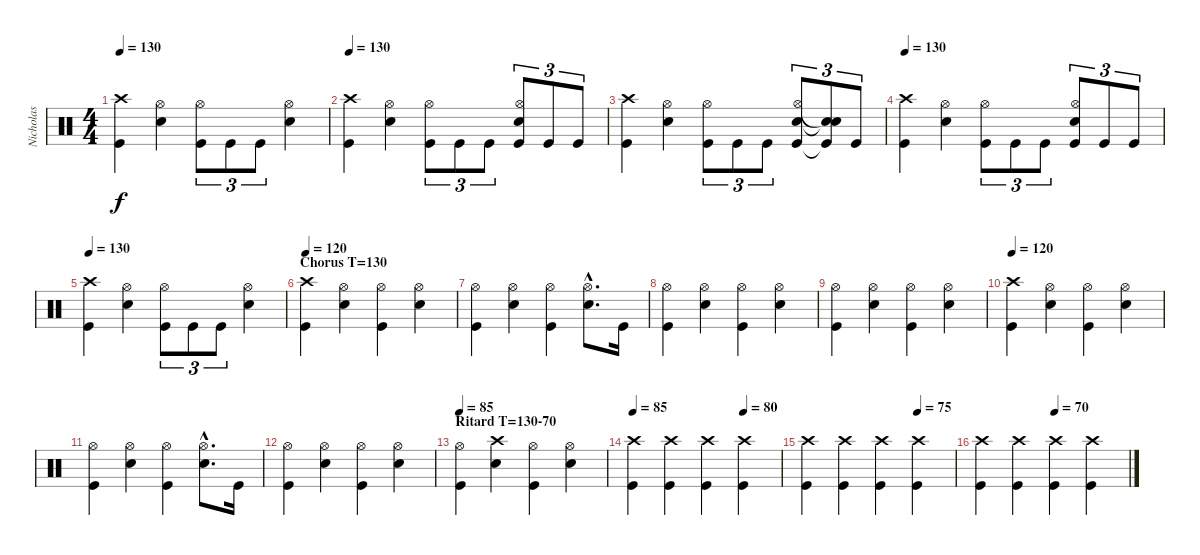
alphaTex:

\track ("Nicholas" "Nicholas") {instrument percussion}
\staff {score}
\articulation defaults
\ts (4 4)
\tempo 130
\clef neutral
\ks c
("Crash high (hit)" "Kick (hit)").4{dy f} ("Hi-Hat (open)" "Electric Snare (hit)").4 ("Hi-Hat (open)" "Kick (hit)").8{tu (3 2)} "Kick (hit)".8{tu (3 2)} "Kick (hit)".8{tu (3 2)} ("Hi-Hat (open)" "Electric Snare (hit)").4 |
\tempo 130
("Crash high (hit)" "Kick (hit)").4 ("Hi-Hat (open)" "Electric Snare (hit)").4 ("Hi-Hat (open)" "Kick (hit)").8{tu (3 2)} "Kick (hit)".8{tu (3 2)} "Kick (hit)".8{tu (3 2)} ("Hi-Hat (open)" "Electric Snare (hit)" "Kick (hit)").8{tu (3 2)} "Kick (hit)".8{tu (3 2)} "Kick (hit)".8{tu (3 2)} |
("Crash high (hit)" "Kick (hit)").4 ("Hi-Hat (open)" "Electric Snare (hit)").4 ("Hi-Hat (open)" "Kick (hit)").8{tu (3 2)} "Kick (hit)".8{tu (3 2)} "Kick (hit)".8{tu (3 2)} ("Hi-Hat (open)" "Electric Snare (hit)" "Kick (hit)").8{tu (3 2)} ("Snare (hit)"{t} "Snare (hit)"{t} "Kick (hit)"{t}).8{tu (3 2)} "Kick (hit)".8{tu (3 2)} |
\tempo 130
("Crash high (hit)" "Kick (hit)").4 ("Hi-Hat (open)" "Electric Snare (hit)").4 ("Hi-Hat (open)" "Kick (hit)").8{tu (3 2)} "Kick (hit)".8{tu (3 2)} "Kick (hit)".8{tu (3 2)} ("Hi-Hat (open)" "Electric Snare (hit)" "Kick (hit)").8{tu (3 2)} "Kick (hit)".8{tu (3 2)} "Kick (hit)".8{tu (3 2)} |
\tempo 130
("Crash high (hit)" "Kick (hit)").4 ("Hi-Hat (open)" "Electric Snare (hit)").4 ("Hi-Hat (open)" "Kick (hit)").8{tu (3 2)} "Kick (hit)".8{tu (3 2)} "Kick (hit)".8{tu (3 2)} ("Hi-Hat (open)" "Electric Snare (hit)").4 |
\section ("" "Chorus T=130")
\tempo 130
\tempo 120
("Crash high (hit)" "Kick (hit)").4 ("Hi-Hat (open)" "Electric Snare (hit)").4 ("Hi-Hat (open)" "Kick (hit)").4 ("Hi-Hat (open)" "Electric Snare (hit)").4 |
("Hi-Hat (open)" "Kick (hit)").4 ("Hi-Hat (open)" "Electric Snare (hit)").4 ("Hi-Hat (open)" "Kick (hit)").4 ("Hi-Hat (open)"{hac} "Electric Snare (hit)"{hac}).8{d} "Kick (hit)".16 |
("Hi-Hat (open)" "Kick (hit)").4 ("Hi-Hat (open)" "Electric Snare (hit)").4 ("Hi-Hat (open)" "Kick (hit)").4 ("Hi-Hat (open)" "Electric Snare (hit)").4 |
("Hi-Hat (open)" "Kick (hit)").4 ("Hi-Hat (open)" "Electric Snare (hit)").4 ("Hi-Hat (open)" "Kick (hit)").4 ("Hi-Hat (open)" "Electric Snare (hit)").4 |
\tempo 130
\tempo 120
("Crash high (hit)" "Kick (hit)").4 ("Hi-Hat (open)" "Electric Snare (hit)").4 ("Hi-Hat (open)" "Kick (hit)").4 ("Hi-Hat (open)" "Electric Snare (hit)").4 |
("Hi-Hat (open)" "Kick (hit)").4 ("Hi-Hat (open)" "Electric Snare (hit)").4 ("Hi-Hat (open)" "Kick (hit)").4 ("Hi-Hat (open)"{hac} "Electric Snare (hit)"{hac}).8{d} "Kick (hit)".16 |
("Hi-Hat (open)" "Kick (hit)").4 ("Hi-Hat (open)" "Electric Snare (hit)").4 ("Hi-Hat (open)" "Kick (hit)").4 ("Hi-Hat (open)" "Electric Snare (hit)").4 |
\section ("" "Ritard T=130-70")
\tempo 85
("Hi-Hat (open)" "Kick (hit)").4 ("Crash high (hit)" "Electric Snare (hit)").4 ("Hi-Hat (open)" "Kick (hit)").4 ("Hi-Hat (open)" "Electric Snare (hit)").4 |
\tempo 85
\tempo (80 0.75)
("Crash high (hit)" "Kick (hit)").4 ("Crash high (hit)" "Kick (hit)").4 ("Crash high (hit)" "Kick (hit)").4 ("Crash high (hit)" "Kick (hit)").4 |
\tempo (75 0.75)
("Crash high (hit)" "Kick (hit)").4 ("Crash high (hit)" "Kick (hit)").4 ("Crash high (hit)" "Kick (hit)").4 ("Crash high (hit)" "Kick (hit)").4 |
\tempo (70 0.5)
("Crash high (hit)" "Kick (hit)").4 ("Crash high (hit)" "Kick (hit)").4 ("Crash high (hit)" "Kick (hit)").4 ("Crash high (hit)" "Kick (hit)").4
